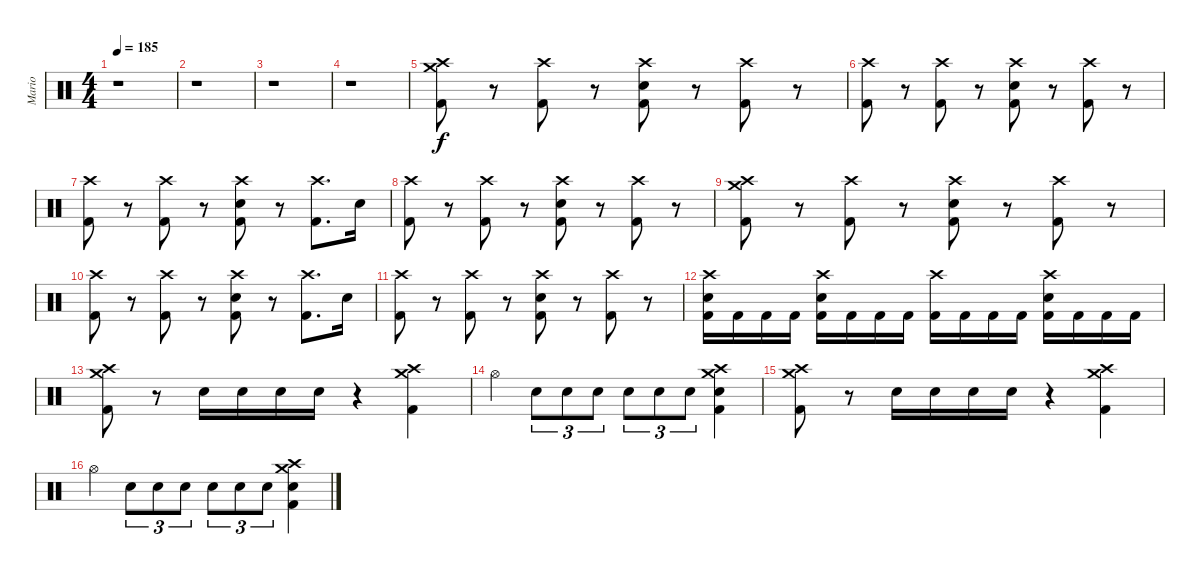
\track ("Mario" "Mario") {instrument percussion}
\staff {score}
\articulation defaults
\ts (4 4)
\tempo 185
\clef neutral
\ks c
r.1{dy f} |
r.1 |
r.1 |
r.1 |
("Crash high (hit)" "Crash medium (hit)" "Kick (hit) 2").8 r.8 ("Crash high (hit)" "Kick (hit) 2").8 r.8 ("Crash high (hit)" "Electric Snare (hit)" "Kick (hit) 2").8 r.8 ("Crash high (hit)" "Kick (hit) 2").8 r.8 |
("Crash high (hit)" "Kick (hit) 2").8 r.8 ("Crash high (hit)" "Kick (hit) 2").8 r.8 ("Crash high (hit)" "Electric Snare (hit)" "Kick (hit) 2").8 r.8 ("Crash high (hit)" "Kick (hit) 2").8 r.8 |
("Crash high (hit)" "Kick (hit) 2").8 r.8 ("Crash high (hit)" "Kick (hit) 2").8 r.8 ("Crash high (hit)" "Electric Snare (hit)" "Kick (hit) 2").8 r.8 ("Crash high (hit)" "Kick (hit) 2").8{d} "Electric Snare (hit)".16 |
("Crash high (hit)" "Kick (hit) 2").8 r.8 ("Crash high (hit)" "Kick (hit) 2").8 r.8 ("Crash high (hit)" "Electric Snare (hit)" "Kick (hit) 2").8 r.8 ("Crash high (hit)" "Kick (hit) 2").8 r.8 |
("Crash high (hit)" "Crash medium (hit)" "Kick (hit) 2").8 r.8 ("Crash high (hit)" "Kick (hit) 2").8 r.8 ("Crash high (hit)" "Electric Snare (hit)" "Kick (hit) 2").8 r.8 ("Crash high (hit)" "Kick (hit) 2").8 r.8 |
("Crash high (hit)" "Kick (hit) 2").8 r.8 ("Crash high (hit)" "Kick (hit) 2").8 r.8 ("Crash high (hit)" "Electric Snare (hit)" "Kick (hit) 2").8 r.8 ("Crash high (hit)" "Kick (hit) 2").8{d} "Electric Snare (hit)".16 |
("Crash high (hit)" "Kick (hit) 2").8 r.8 ("Crash high (hit)" "Kick (hit) 2").8 r.8 ("Crash high (hit)" "Electric Snare (hit)" "Kick (hit) 2").8 r.8 ("Crash high (hit)" "Kick (hit) 2").8 r.8 |
("Crash high (hit)" "Electric Snare (hit)" "Kick (hit) 2").16 "Kick (hit) 2".16 "Kick (hit) 2".16 "Kick (hit) 2".16 ("Crash high (hit)" "Electric Snare (hit)" "Kick (hit) 2").16 "Kick (hit) 2".16 "Kick (hit) 2".16 "Kick (hit) 2".16 ("Crash high (hit)" "Kick (hit) 2").16 "Kick (hit) 2".16 "Kick (hit) 2".16 "Kick (hit) 2".16 ("Crash high (hit)" "Electric Snare (hit)" "Kick (hit) 2").16 "Kick (hit) 2".16 "Kick (hit) 2".16 "Kick (hit) 2".16 |
("Crash high (hit)" "Crash medium (hit)" "Kick (hit) 2").8 r.8 "Electric Snare (hit)".16 "Electric Snare (hit)".16 "Electric Snare (hit)".16 "Electric Snare (hit)".16 r.4 ("Crash high (hit)" "Crash medium (hit)" "Kick (hit) 2").4 |
"Hi-Hat (open)".4 "Electric Snare (hit)".8{tu (3 2)} "Electric Snare (hit)".8{tu (3 2)} "Electric Snare (hit)".8{tu (3 2)} "Electric Snare (hit)".8{tu (3 2)} "Electric Snare (hit)".8{tu (3 2)} "Electric Snare (hit)".8{tu (3 2)} ("Crash high (hit)" "Crash medium (hit)" "Electric Snare (hit)" "Kick (hit) 2").4 |
("Crash high (hit)" "Crash medium (hit)" "Kick (hit) 2").8 r.8 "Electric Snare (hit)".16 "Electric Snare (hit)".16 "Electric Snare (hit)".16 "Electric Snare (hit)".16 r.4 ("Crash high (hit)" "Crash medium (hit)" "Kick (hit) 2").4 |
"Hi-Hat (open)".4 "Electric Snare (hit)".8{tu (3 2)} "Electric Snare (hit)".8{tu (3 2)} "Electric Snare (hit)".8{tu (3 2)} "Electric Snare (hit)".8{tu (3 2)} "Electric Snare (hit)".8{tu (3 2)} "Electric Snare (hit)".8{tu (3 2)} ("Crash high (hit)" "Crash medium (hit)" "Electric Snare (hit)" "Kick (hit) 2").4
